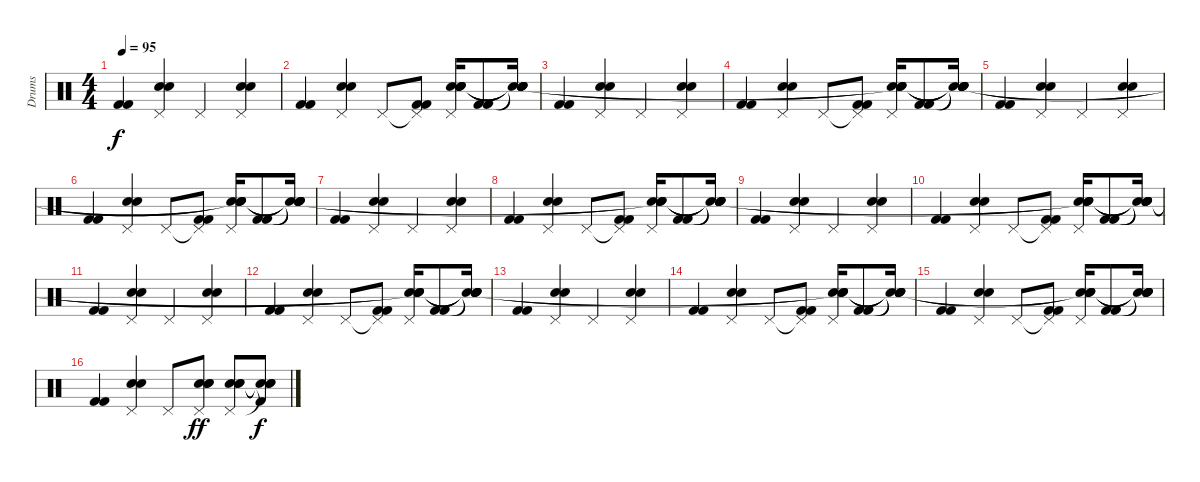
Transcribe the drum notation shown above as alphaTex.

\track ("Drums" "Drums") {instrument percussion}
\staff {score}
\articulation defaults
\ts (4 4)
\tempo 95
\clef neutral
\ks c
("Kick (hit) 2" "Kick (hit) 2").4{dy f} ("Pedal Hi-Hat (hit)" "Electric Snare (hit)" "Electric Snare (hit)").4 "Pedal Hi-Hat (hit)".4 ("Pedal Hi-Hat (hit)" "Electric Snare (hit)" "Electric Snare (hit)").4 |
("Kick (hit) 2" "Kick (hit) 2").4 ("Pedal Hi-Hat (hit)" "Electric Snare (hit)" "Electric Snare (hit)").4 "Pedal Hi-Hat (hit)".8 ("Pedal Hi-Hat (hit)"{t} "Kick (hit) 2" "Kick (hit) 2").8 ("Pedal Hi-Hat (hit)" "Electric Snare (hit)" "Electric Snare (hit)" "Snare (hit)" "Snare (hit)").16 ("Kick (hit) 2" "Kick (hit) 2").8 ("Snare (hit)"{t} "Snare (hit)"{t} "Snare (hit)"{t} "Snare (hit)"{t} "Snare (hit)"{t}).16 |
("Kick (hit) 2" "Kick (hit) 2").4 ("Pedal Hi-Hat (hit)" "Electric Snare (hit)" "Electric Snare (hit)").4 "Pedal Hi-Hat (hit)".4 ("Pedal Hi-Hat (hit)" "Electric Snare (hit)" "Electric Snare (hit)").4 |
("Kick (hit) 2" "Kick (hit) 2").4 ("Pedal Hi-Hat (hit)" "Electric Snare (hit)" "Electric Snare (hit)").4 "Pedal Hi-Hat (hit)".8 ("Pedal Hi-Hat (hit)"{t} "Kick (hit) 2" "Kick (hit) 2").8 ("Pedal Hi-Hat (hit)" "Electric Snare (hit)" "Electric Snare (hit)" "Snare (hit)"{t} "Snare (hit)"{t}).16 ("Kick (hit) 2" "Kick (hit) 2").8 ("Snare (hit)"{t} "Snare (hit)"{t} "Snare (hit)"{t} "Snare (hit)"{t} "Snare (hit)"{t}).16 |
("Kick (hit) 2" "Kick (hit) 2").4 ("Pedal Hi-Hat (hit)" "Electric Snare (hit)" "Electric Snare (hit)").4 "Pedal Hi-Hat (hit)".4 ("Pedal Hi-Hat (hit)" "Electric Snare (hit)" "Electric Snare (hit)").4 |
("Kick (hit) 2" "Kick (hit) 2").4 ("Pedal Hi-Hat (hit)" "Electric Snare (hit)" "Electric Snare (hit)").4 "Pedal Hi-Hat (hit)".8 ("Pedal Hi-Hat (hit)"{t} "Kick (hit) 2" "Kick (hit) 2").8 ("Pedal Hi-Hat (hit)" "Electric Snare (hit)" "Electric Snare (hit)" "Snare (hit)"{t} "Snare (hit)"{t}).16 ("Kick (hit) 2" "Kick (hit) 2").8 ("Snare (hit)"{t} "Snare (hit)"{t} "Snare (hit)"{t} "Snare (hit)"{t} "Snare (hit)"{t}).16 |
("Kick (hit) 2" "Kick (hit) 2").4 ("Pedal Hi-Hat (hit)" "Electric Snare (hit)" "Electric Snare (hit)").4 "Pedal Hi-Hat (hit)".4 ("Pedal Hi-Hat (hit)" "Electric Snare (hit)" "Electric Snare (hit)").4 |
("Kick (hit) 2" "Kick (hit) 2").4 ("Pedal Hi-Hat (hit)" "Electric Snare (hit)" "Electric Snare (hit)").4 "Pedal Hi-Hat (hit)".8 ("Pedal Hi-Hat (hit)"{t} "Kick (hit) 2" "Kick (hit) 2").8 ("Pedal Hi-Hat (hit)" "Electric Snare (hit)" "Electric Snare (hit)" "Snare (hit)"{t} "Snare (hit)"{t}).16 ("Kick (hit) 2" "Kick (hit) 2").8 ("Snare (hit)"{t} "Snare (hit)"{t} "Snare (hit)"{t} "Snare (hit)"{t} "Snare (hit)"{t}).16 |
("Kick (hit) 2" "Kick (hit) 2").4 ("Pedal Hi-Hat (hit)" "Electric Snare (hit)" "Electric Snare (hit)").4 "Pedal Hi-Hat (hit)".4 ("Pedal Hi-Hat (hit)" "Electric Snare (hit)" "Electric Snare (hit)").4 |
("Kick (hit) 2" "Kick (hit) 2").4 ("Pedal Hi-Hat (hit)" "Electric Snare (hit)" "Electric Snare (hit)").4 "Pedal Hi-Hat (hit)".8 ("Pedal Hi-Hat (hit)"{t} "Kick (hit) 2" "Kick (hit) 2").8 ("Pedal Hi-Hat (hit)" "Electric Snare (hit)" "Electric Snare (hit)" "Snare (hit)"{t} "Snare (hit)"{t}).16 ("Kick (hit) 2" "Kick (hit) 2").8 ("Snare (hit)"{t} "Snare (hit)"{t} "Snare (hit)"{t} "Snare (hit)"{t} "Snare (hit)"{t}).16 |
("Kick (hit) 2" "Kick (hit) 2").4 ("Pedal Hi-Hat (hit)" "Electric Snare (hit)" "Electric Snare (hit)").4 "Pedal Hi-Hat (hit)".4 ("Pedal Hi-Hat (hit)" "Electric Snare (hit)" "Electric Snare (hit)").4 |
("Kick (hit) 2" "Kick (hit) 2").4 ("Pedal Hi-Hat (hit)" "Electric Snare (hit)" "Electric Snare (hit)").4 "Pedal Hi-Hat (hit)".8 ("Pedal Hi-Hat (hit)"{t} "Kick (hit) 2" "Kick (hit) 2").8 ("Pedal Hi-Hat (hit)" "Electric Snare (hit)" "Electric Snare (hit)" "Snare (hit)"{t} "Snare (hit)"{t}).16 ("Kick (hit) 2" "Kick (hit) 2").8 ("Snare (hit)"{t} "Snare (hit)"{t} "Snare (hit)"{t} "Snare (hit)"{t} "Snare (hit)"{t}).16 |
("Kick (hit) 2" "Kick (hit) 2").4 ("Pedal Hi-Hat (hit)" "Electric Snare (hit)" "Electric Snare (hit)").4 "Pedal Hi-Hat (hit)".4 ("Pedal Hi-Hat (hit)" "Electric Snare (hit)" "Electric Snare (hit)").4 |
("Kick (hit) 2" "Kick (hit) 2").4 ("Pedal Hi-Hat (hit)" "Electric Snare (hit)" "Electric Snare (hit)").4 "Pedal Hi-Hat (hit)".8 ("Pedal Hi-Hat (hit)"{t} "Kick (hit) 2" "Kick (hit) 2").8 ("Pedal Hi-Hat (hit)" "Electric Snare (hit)" "Electric Snare (hit)" "Snare (hit)"{t} "Snare (hit)"{t}).16 ("Kick (hit) 2" "Kick (hit) 2").8 ("Snare (hit)"{t} "Snare (hit)"{t} "Snare (hit)"{t} "Snare (hit)"{t} "Snare (hit)"{t}).16 |
("Kick (hit) 2" "Kick (hit) 2").4 ("Pedal Hi-Hat (hit)" "Electric Snare (hit)" "Electric Snare (hit)").4 "Pedal Hi-Hat (hit)".8 ("Pedal Hi-Hat (hit)"{t} "Kick (hit) 2" "Kick (hit) 2").8 ("Pedal Hi-Hat (hit)" "Electric Snare (hit)" "Electric Snare (hit)" "Snare (hit)"{t} "Snare (hit)"{t}).16 ("Kick (hit) 2" "Kick (hit) 2").8 ("Snare (hit)"{t} "Snare (hit)"{t} "Snare (hit)"{t} "Snare (hit)"{t} "Snare (hit)"{t}).16 |
("Kick (hit) 2" "Kick (hit) 2").4 ("Pedal Hi-Hat (hit)" "Electric Snare (hit)" "Electric Snare (hit)").4 "Pedal Hi-Hat (hit)".8 ("Pedal Hi-Hat (hit)" "Electric Snare (hit)" "Electric Snare (hit)" "Electric Snare (hit)").8{dy ff} ("Pedal Hi-Hat (hit)" "Electric Snare (hit)" "Electric Snare (hit)" "Electric Snare (hit)").8 ("Snare (hit)"{t} "Snare (hit)"{t} "Snare (hit)"{t} "Kick (hit) 2").8{dy f}
